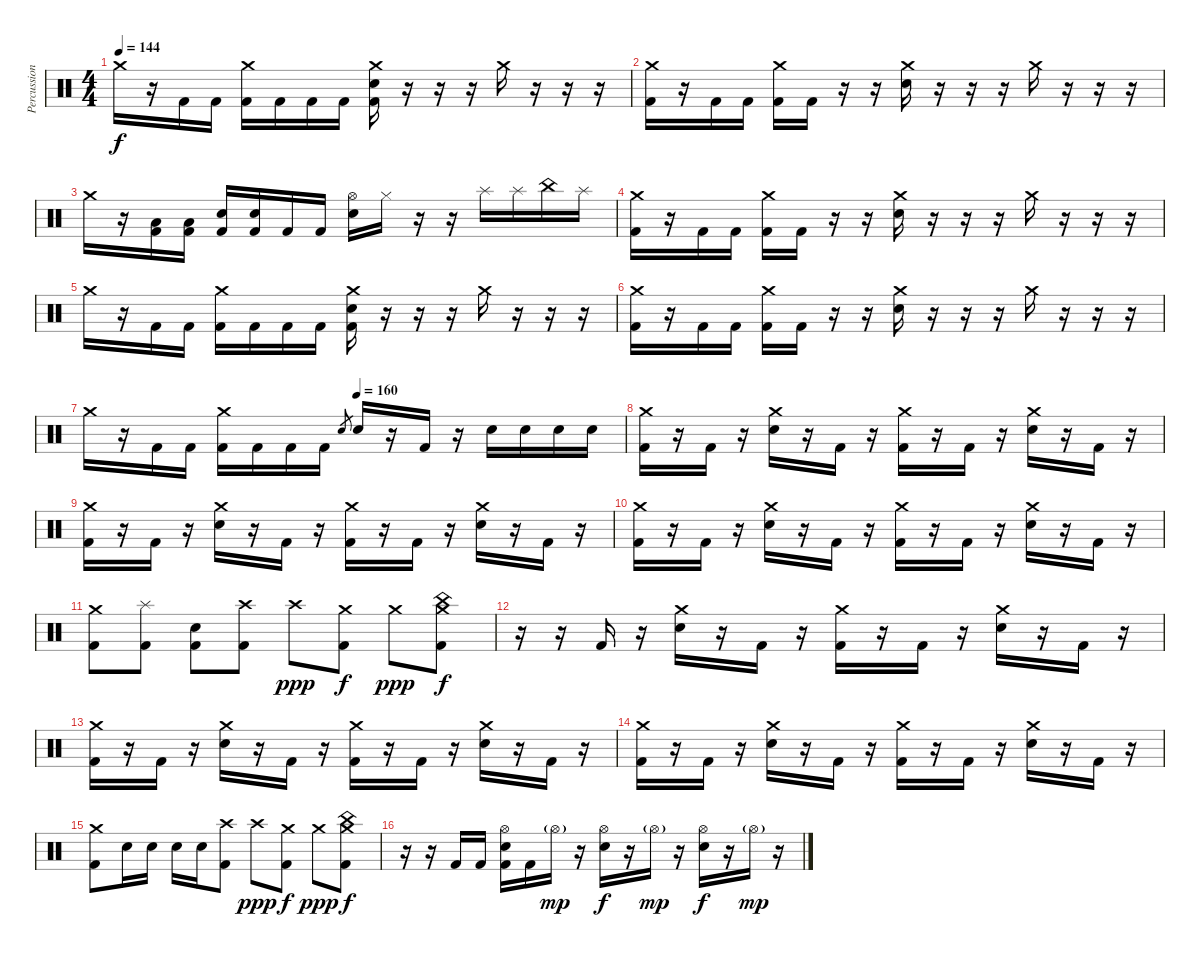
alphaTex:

\track ("Percussion" "Percussion") {instrument percussion}
\staff {score}
\articulation defaults
\ts (4 4)
\tempo 144
\clef neutral
\ks c "Crash medium (hit)".16{dy f}
r.16 "Kick (hit) 2".16 "Kick (hit) 2".16 ("Crash medium (hit)" "Kick (hit) 2").16 "Kick (hit) 2".16 "Kick (hit) 2".16 "Kick (hit) 2".16 ("Crash medium (hit)" "Electric Snare (hit)" "Kick (hit) 2").16 r.16 r.16 r.16 "Crash medium (hit)".16 r.16 r.16 r.16 |
("Crash medium (hit)" "Kick (hit) 2").16 r.16 "Kick (hit) 2".16 "Kick (hit) 2".16 ("Crash medium (hit)" "Kick (hit) 2").16 "Kick (hit) 2".16 r.16 r.16 ("Crash medium (hit)" "Electric Snare (hit)").16 r.16 r.16 r.16 "Crash medium (hit)".16 r.16 r.16 r.16 |
"Crash medium (hit)".16 r.16 ("Low Tom (hit)" "Kick (hit) 2").16 ("Low Tom (hit)" "Kick (hit) 2").16 ("Electric Snare (hit)" "Kick (hit) 2").16 ("Electric Snare (hit)" "Kick (hit) 2").16 "Kick (hit) 2".16 "Kick (hit) 2".16 ("Hi-Hat (open)" "Electric Snare (hit)").16 "Hi-Hat (closed)".16 r.16 r.16 "Splash (hit)".16 "Splash (hit)".16 "China (hit)".16 "Splash (hit)".16 |
("Crash medium (hit)" "Kick (hit) 2").16 r.16 "Kick (hit) 2".16 "Kick (hit) 2".16 ("Crash medium (hit)" "Kick (hit) 2").16 "Kick (hit) 2".16 r.16 r.16 ("Crash medium (hit)" "Electric Snare (hit)").16 r.16 r.16 r.16 "Crash medium (hit)".16 r.16 r.16 r.16 |
"Crash medium (hit)".16 r.16 "Kick (hit) 2".16 "Kick (hit) 2".16 ("Crash medium (hit)" "Kick (hit) 2").16 "Kick (hit) 2".16 "Kick (hit) 2".16 "Kick (hit) 2".16 ("Crash medium (hit)" "Electric Snare (hit)" "Kick (hit) 2").16 r.16 r.16 r.16 "Crash medium (hit)".16 r.16 r.16 r.16 |
("Crash medium (hit)" "Kick (hit) 2").16 r.16 "Kick (hit) 2".16 "Kick (hit) 2".16 ("Crash medium (hit)" "Kick (hit) 2").16 "Kick (hit) 2".16 r.16 r.16 ("Crash medium (hit)" "Electric Snare (hit)").16 r.16 r.16 r.16 "Crash medium (hit)".16 r.16 r.16 r.16 |
\tempo (160 0.5)
"Crash medium (hit)".16 r.16 "Kick (hit) 2".16 "Kick (hit) 2".16 ("Crash medium (hit)" "Kick (hit) 2").16 "Kick (hit) 2".16 "Kick (hit) 2".16 "Kick (hit) 2".16 "Electric Snare (hit)".8{gr} "Electric Snare (hit)".16 r.16 "Kick (hit) 2".16 r.16 "Electric Snare (hit)".16 "Electric Snare (hit)".16 "Electric Snare (hit)".16 "Electric Snare (hit)".16 |
("Crash medium (hit)" "Kick (hit) 2").16 r.16 "Kick (hit) 2".16 r.16 ("Crash medium (hit)" "Electric Snare (hit)").16 r.16 "Kick (hit) 2".16 r.16 ("Crash medium (hit)" "Kick (hit) 2").16 r.16 "Kick (hit) 2".16 r.16 ("Crash medium (hit)" "Electric Snare (hit)").16 r.16 "Kick (hit) 2".16 r.16 |
("Crash medium (hit)" "Kick (hit) 2").16 r.16 "Kick (hit) 2".16 r.16 ("Crash medium (hit)" "Electric Snare (hit)").16 r.16 "Kick (hit) 2".16 r.16 ("Crash medium (hit)" "Kick (hit) 2").16 r.16 "Kick (hit) 2".16 r.16 ("Crash medium (hit)" "Electric Snare (hit)").16 r.16 "Kick (hit) 2".16 r.16 |
("Crash medium (hit)" "Kick (hit) 2").16 r.16 "Kick (hit) 2".16 r.16 ("Crash medium (hit)" "Electric Snare (hit)").16 r.16 "Kick (hit) 2".16 r.16 ("Crash medium (hit)" "Kick (hit) 2").16 r.16 "Kick (hit) 2".16 r.16 ("Crash medium (hit)" "Electric Snare (hit)").16 r.16 "Kick (hit) 2".16 r.16 |
("Crash medium (hit)" "Kick (hit) 2").8 ("Splash (hit)" "Kick (hit) 2").8 ("Electric Snare (hit)" "Kick (hit) 2").8 ("Crash high (hit)" "Kick (hit) 2").8 "Crash high (hit)".8{dy ppp} ("Crash medium (hit)" "Kick (hit) 2").8{dy f} "Crash medium (hit)".8{dy ppp} ("China (hit)" "Crash medium (hit)" "Kick (hit) 2").8{dy f} |
r.16 r.16 "Kick (hit) 2".16 r.16 ("Crash medium (hit)" "Electric Snare (hit)").16 r.16 "Kick (hit) 2".16 r.16 ("Crash medium (hit)" "Kick (hit) 2").16 r.16 "Kick (hit) 2".16 r.16 ("Crash medium (hit)" "Electric Snare (hit)").16 r.16 "Kick (hit) 2".16 r.16 |
("Crash medium (hit)" "Kick (hit) 2").16 r.16 "Kick (hit) 2".16 r.16 ("Crash medium (hit)" "Electric Snare (hit)").16 r.16 "Kick (hit) 2".16 r.16 ("Crash medium (hit)" "Kick (hit) 2").16 r.16 "Kick (hit) 2".16 r.16 ("Crash medium (hit)" "Electric Snare (hit)").16 r.16 "Kick (hit) 2".16 r.16 |
("Crash medium (hit)" "Kick (hit) 2").16 r.16 "Kick (hit) 2".16 r.16 ("Crash medium (hit)" "Electric Snare (hit)").16 r.16 "Kick (hit) 2".16 r.16 ("Crash medium (hit)" "Kick (hit) 2").16 r.16 "Kick (hit) 2".16 r.16 ("Crash medium (hit)" "Electric Snare (hit)").16 r.16 "Kick (hit) 2".16 r.16 |
("Crash medium (hit)" "Kick (hit) 2").8 "Electric Snare (hit)".16 "Electric Snare (hit)".16 "Electric Snare (hit)".16 "Electric Snare (hit)".16 ("Crash high (hit)" "Kick (hit) 2").8 "Crash high (hit)".8{dy ppp} ("Crash medium (hit)" "Kick (hit) 2").8{dy f} "Crash medium (hit)".8{dy ppp} ("China (hit)" "Crash medium (hit)" "Kick (hit) 2").8{dy f} |
r.16 r.16 "Kick (hit) 2".16 "Kick (hit) 2".16 ("Hi-Hat (open)" "Electric Snare (hit)" "Kick (hit) 2").16 "Kick (hit) 2".16 "Hi-Hat (open)"{g}.16{dy mp} r.16 ("Hi-Hat (open)" "Electric Snare (hit)").16{dy f} r.16 "Hi-Hat (open)"{g}.16{dy mp} r.16 ("Hi-Hat (open)" "Electric Snare (hit)").16{dy f} r.16 "Hi-Hat (open)"{g}.16{dy mp} r.16
